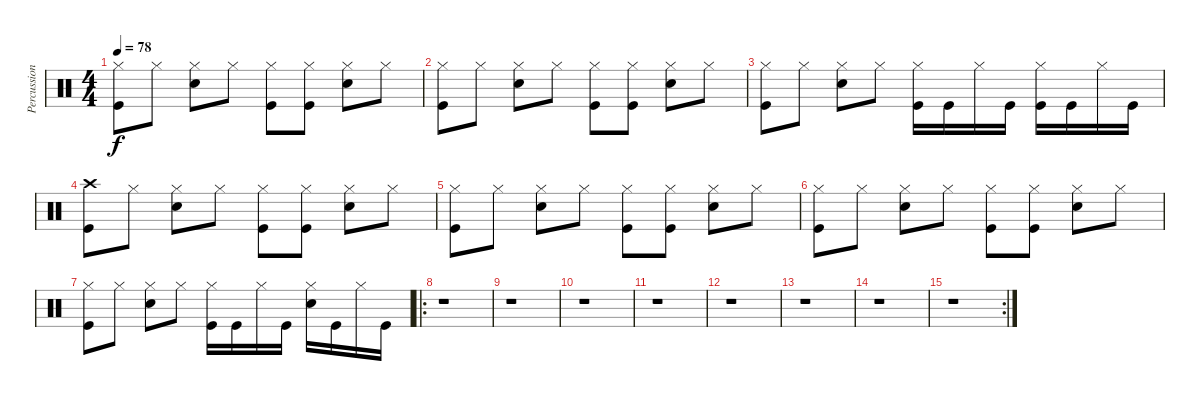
\track ("Percussion" "Percussion") {instrument percussion}
\staff {score}
\articulation defaults
\ts (4 4)
\tempo 78
\clef neutral
\ks c
("Hi-Hat (closed)" "Kick (hit)").8{dy f} "Hi-Hat (closed)".8 ("Hi-Hat (closed)" "Snare (hit) 2").8 "Hi-Hat (closed)".8 ("Hi-Hat (closed)" "Kick (hit)").8 ("Hi-Hat (closed)" "Kick (hit)").8 ("Hi-Hat (closed)" "Snare (hit) 2").8 "Hi-Hat (closed)".8 |
("Hi-Hat (closed)" "Kick (hit)").8 "Hi-Hat (closed)".8 ("Hi-Hat (closed)" "Snare (hit) 2").8 "Hi-Hat (closed)".8 ("Hi-Hat (closed)" "Kick (hit)").8 ("Hi-Hat (closed)" "Kick (hit)").8 ("Hi-Hat (closed)" "Snare (hit) 2").8 "Hi-Hat (closed)".8 |
("Hi-Hat (closed)" "Kick (hit)").8 "Hi-Hat (closed)".8 ("Hi-Hat (closed)" "Snare (hit) 2").8 "Hi-Hat (closed)".8 ("Hi-Hat (closed)" "Kick (hit)").16 "Kick (hit)".16 "Hi-Hat (closed)".16 "Kick (hit)".16 ("Hi-Hat (closed)" "Kick (hit)").16 "Kick (hit)".16 "Hi-Hat (closed)".16 "Kick (hit)".16 |
("Crash high (hit)" "Kick (hit)").8 "Hi-Hat (closed)".8 ("Hi-Hat (closed)" "Snare (hit) 2").8 "Hi-Hat (closed)".8 ("Hi-Hat (closed)" "Kick (hit)").8 ("Hi-Hat (closed)" "Kick (hit)").8 ("Hi-Hat (closed)" "Snare (hit) 2").8 "Hi-Hat (closed)".8 |
("Hi-Hat (closed)" "Kick (hit)").8 "Hi-Hat (closed)".8 ("Hi-Hat (closed)" "Snare (hit) 2").8 "Hi-Hat (closed)".8 ("Hi-Hat (closed)" "Kick (hit)").8 ("Hi-Hat (closed)" "Kick (hit)").8 ("Hi-Hat (closed)" "Snare (hit) 2").8 "Hi-Hat (closed)".8 |
("Hi-Hat (closed)" "Kick (hit)").8 "Hi-Hat (closed)".8 ("Hi-Hat (closed)" "Snare (hit) 2").8 "Hi-Hat (closed)".8 ("Hi-Hat (closed)" "Kick (hit)").8 ("Hi-Hat (closed)" "Kick (hit)").8 ("Hi-Hat (closed)" "Snare (hit) 2").8 "Hi-Hat (closed)".8 |
("Hi-Hat (closed)" "Kick (hit)").8 "Hi-Hat (closed)".8 ("Hi-Hat (closed)" "Snare (hit) 2").8 "Hi-Hat (closed)".8 ("Hi-Hat (closed)" "Kick (hit)").16 "Kick (hit)".16 "Hi-Hat (closed)".16 "Kick (hit)".16 ("Hi-Hat (closed)" "Snare (hit) 2").16 "Kick (hit)".16 "Hi-Hat (closed)".16 "Kick (hit)".16 |
\ro
r.1 |
r.1 |
r.1 |
r.1 |
r.1 |
r.1 |
r.1 |
\rc 2
r.1
